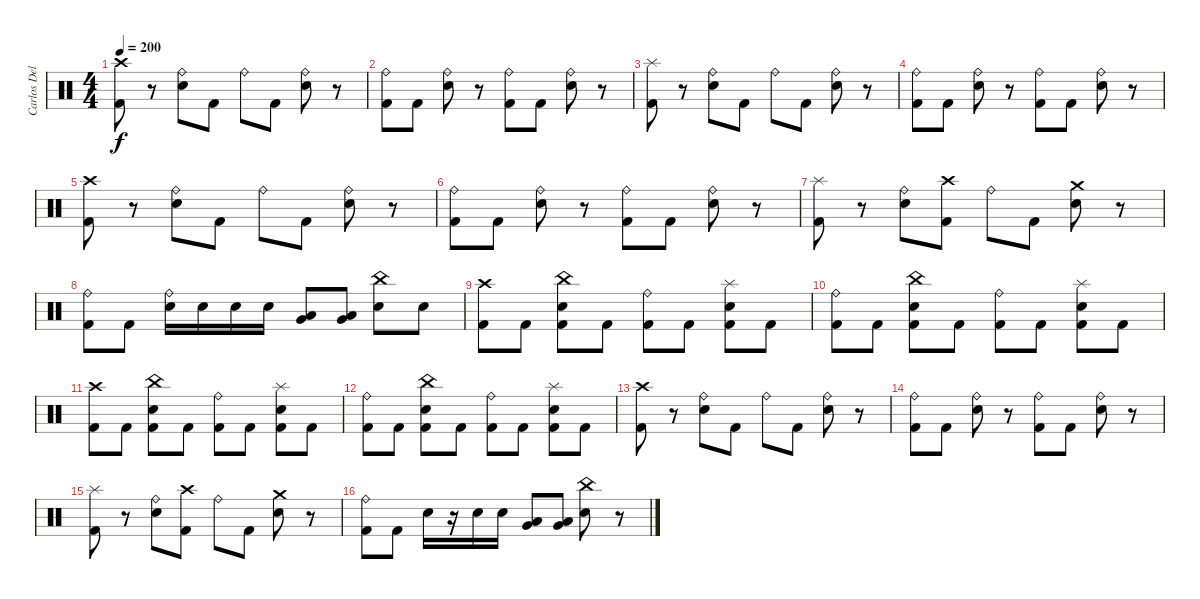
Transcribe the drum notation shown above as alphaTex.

\track ("Carlos Delgado" "Carlos Del") {instrument percussion}
\staff {score}
\articulation defaults
\ts (4 4)
\tempo 200
\clef neutral
\ks c
("Crash high (hit)" "Kick (hit) 2").8{dy f} r.8 ("Ride (bell)" "Electric Snare (hit)").8 "Kick (hit) 2".8 "Ride (bell)".8 "Kick (hit) 2".8 ("Electric Snare (hit)" "Ride (bell)").8 r.8 |
("Ride (bell)" "Kick (hit) 2").8 "Kick (hit) 2".8 ("Ride (bell)" "Electric Snare (hit)").8 r.8 ("Ride (bell)" "Kick (hit) 2").8 "Kick (hit) 2".8 ("Ride (bell)" "Electric Snare (hit)").8 r.8 |
("Splash (hit)" "Kick (hit) 2").8 r.8 ("Ride (bell)" "Electric Snare (hit)").8 "Kick (hit) 2".8 "Ride (bell)".8 "Kick (hit) 2".8 ("Electric Snare (hit)" "Ride (bell)").8 r.8 |
("Ride (bell)" "Kick (hit) 2").8 "Kick (hit) 2".8 ("Ride (bell)" "Electric Snare (hit)").8 r.8 ("Ride (bell)" "Kick (hit) 2").8 "Kick (hit) 2".8 ("Ride (bell)" "Electric Snare (hit)").8 r.8 |
("Crash high (hit)" "Kick (hit) 2").8 r.8 ("Ride (bell)" "Electric Snare (hit)").8 "Kick (hit) 2".8 "Ride (bell)".8 "Kick (hit) 2".8 ("Electric Snare (hit)" "Ride (bell)").8 r.8 |
("Ride (bell)" "Kick (hit) 2").8 "Kick (hit) 2".8 ("Ride (bell)" "Electric Snare (hit)").8 r.8 ("Ride (bell)" "Kick (hit) 2").8 "Kick (hit) 2".8 ("Ride (bell)" "Electric Snare (hit)").8 r.8 |
("Splash (hit)" "Kick (hit) 2").8 r.8 ("Ride (bell)" "Electric Snare (hit)").8 ("Crash high (hit)" "Kick (hit) 2").8 "Ride (bell)".8 "Kick (hit) 2".8 ("Electric Snare (hit)" "Crash medium (hit)").8 r.8 |
("Ride (bell)" "Kick (hit) 2").8 "Kick (hit) 2".8 ("Ride (bell)" "Electric Snare (hit)").16 "Electric Snare (hit)".16 "Electric Snare (hit)".16 "Electric Snare (hit)".16 ("Very Low Tom (hit)" "Low Floor Tom (hit)").8 ("Very Low Tom (hit)" "Low Floor Tom (hit)").8 ("China (hit)" "Electric Snare (hit)").8 "Electric Snare (hit)".8 |
("Crash high (hit)" "Kick (hit) 2").8 "Kick (hit) 2".8 ("Kick (hit) 2" "China (hit)" "Electric Snare (hit)").8 "Kick (hit) 2".8 ("Kick (hit) 2" "Ride (bell)").8 "Kick (hit) 2".8 ("Kick (hit) 2" "Electric Snare (hit)" "Splash (hit)").8 "Kick (hit) 2".8 |
("Ride (bell)" "Kick (hit) 2").8 "Kick (hit) 2".8 ("Kick (hit) 2" "China (hit)" "Electric Snare (hit)").8 "Kick (hit) 2".8 ("Ride (bell)" "Kick (hit) 2").8 "Kick (hit) 2".8 ("Kick (hit) 2" "Splash (hit)" "Electric Snare (hit)").8 "Kick (hit) 2".8 |
("Kick (hit) 2" "Crash high (hit)").8 "Kick (hit) 2".8 ("Kick (hit) 2" "Electric Snare (hit)" "China (hit)").8 "Kick (hit) 2".8 ("Ride (bell)" "Kick (hit) 2").8 "Kick (hit) 2".8 ("Electric Snare (hit)" "Splash (hit)" "Kick (hit) 2").8 "Kick (hit) 2".8 |
("Kick (hit) 2" "Ride (bell)").8 "Kick (hit) 2".8 ("Kick (hit) 2" "Electric Snare (hit)" "China (hit)").8 "Kick (hit) 2".8 ("Ride (bell)" "Kick (hit) 2").8 "Kick (hit) 2".8 ("Electric Snare (hit)" "Kick (hit) 2" "Splash (hit)").8 "Kick (hit) 2".8 |
("Kick (hit) 2" "Crash high (hit)").8 r.8 ("Electric Snare (hit)" "Ride (bell)").8 "Kick (hit) 2".8 "Ride (bell)".8 "Kick (hit) 2".8 ("Electric Snare (hit)" "Ride (bell)").8 r.8 |
("Ride (bell)" "Kick (hit) 2").8 "Kick (hit) 2".8 ("Ride (bell)" "Electric Snare (hit)").8 r.8 ("Kick (hit) 2" "Ride (bell)").8 "Kick (hit) 2".8 ("Electric Snare (hit)" "Ride (bell)").8 r.8 |
("Kick (hit) 2" "Splash (hit)").8 r.8 ("Ride (bell)" "Electric Snare (hit)").8 ("Crash high (hit)" "Kick (hit) 2").8 "Ride (bell)".8 "Kick (hit) 2".8 ("Crash medium (hit)" "Electric Snare (hit)").8 r.8 |
("Ride (bell)" "Kick (hit) 2").8 "Kick (hit) 2".8 "Electric Snare (hit)".16 r.16 "Electric Snare (hit)".16 "Electric Snare (hit)".16 ("Very Low Tom (hit)" "Low Floor Tom (hit)").8 ("Low Floor Tom (hit)" "Very Low Tom (hit)").8 ("China (hit)" "Electric Snare (hit)").8 r.8
